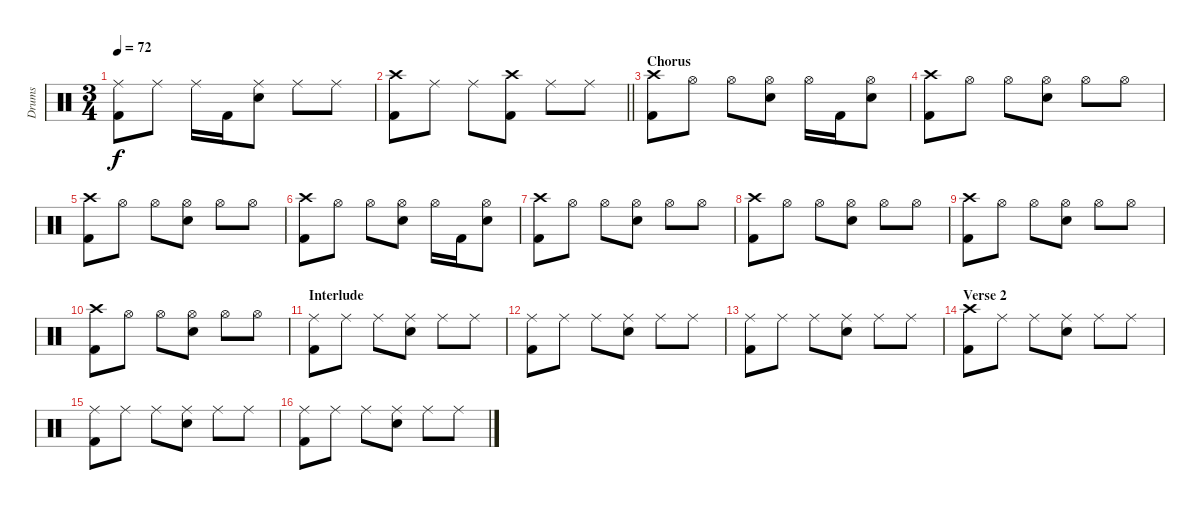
\track ("Drums" "Drums") {instrument percussion}
\staff {score}
\articulation defaults
\ts (3 4)
\tempo 72
\clef neutral
\ks c
("Ride (middle)" "Kick (hit) 2").8{dy f} "Ride (middle)".8 "Ride (middle)".16 "Kick (hit) 2".16 ("Ride (middle)" "Electric Snare (hit)").8 "Ride (middle)".8 "Ride (middle)".8 |
\barLineRight lightlight
("Crash high (hit)" "Kick (hit) 2").8 "Ride (middle)".8 "Ride (middle)".8 ("Crash high (hit)" "Kick (hit) 2").8 "Ride (middle)".8 "Ride (middle)".8 |
\section ("" "Chorus")
("Crash high (hit)" "Kick (hit) 2").8 "Hi-Hat (open)".8 "Hi-Hat (open)".8 ("Hi-Hat (open)" "Electric Snare (hit)").8 "Hi-Hat (open)".16 "Kick (hit) 2".16 ("Hi-Hat (open)" "Electric Snare (hit)").8 |
("Crash high (hit)" "Kick (hit) 2").8 "Hi-Hat (open)".8 "Hi-Hat (open)".8 ("Hi-Hat (open)" "Electric Snare (hit)").8 "Hi-Hat (open)".8 "Hi-Hat (open)".8 |
("Crash high (hit)" "Kick (hit) 2").8 "Hi-Hat (open)".8 "Hi-Hat (open)".8 ("Hi-Hat (open)" "Electric Snare (hit)").8 "Hi-Hat (open)".8 "Hi-Hat (open)".8 |
("Crash high (hit)" "Kick (hit) 2").8 "Hi-Hat (open)".8 "Hi-Hat (open)".8 ("Hi-Hat (open)" "Electric Snare (hit)").8 "Hi-Hat (open)".16 "Kick (hit) 2".16 ("Hi-Hat (open)" "Electric Snare (hit)").8 |
("Crash high (hit)" "Kick (hit) 2").8 "Hi-Hat (open)".8 "Hi-Hat (open)".8 ("Hi-Hat (open)" "Electric Snare (hit)").8 "Hi-Hat (open)".8 "Hi-Hat (open)".8 |
("Crash high (hit)" "Kick (hit) 2").8 "Hi-Hat (open)".8 "Hi-Hat (open)".8 ("Hi-Hat (open)" "Electric Snare (hit)").8 "Hi-Hat (open)".8 "Hi-Hat (open)".8 |
("Crash high (hit)" "Kick (hit) 2").8 "Hi-Hat (open)".8 "Hi-Hat (open)".8 ("Hi-Hat (open)" "Electric Snare (hit)").8 "Hi-Hat (open)".8 "Hi-Hat (open)".8 |
("Crash high (hit)" "Kick (hit) 2").8 "Hi-Hat (open)".8 "Hi-Hat (open)".8 ("Hi-Hat (open)" "Electric Snare (hit)").8 "Hi-Hat (open)".8 "Hi-Hat (open)".8 |
\section ("" "Interlude")
("Ride (middle)" "Kick (hit) 2").8 "Ride (middle)".8 "Ride (middle)".8 ("Ride (middle)" "Electric Snare (hit)").8 "Ride (middle)".8 "Ride (middle)".8 |
("Ride (middle)" "Kick (hit) 2").8 "Ride (middle)".8 "Ride (middle)".8 ("Ride (middle)" "Electric Snare (hit)").8 "Ride (middle)".8 "Ride (middle)".8 |
("Ride (middle)" "Kick (hit) 2").8 "Ride (middle)".8 "Ride (middle)".8 ("Ride (middle)" "Electric Snare (hit)").8 "Ride (middle)".8 "Ride (middle)".8 |
\section ("" "Verse 2")
("Crash high (hit)" "Kick (hit) 2").8 "Ride (middle)".8 "Ride (middle)".8 ("Ride (middle)" "Electric Snare (hit)").8 "Ride (middle)".8 "Ride (middle)".8 |
("Ride (middle)" "Kick (hit) 2").8 "Ride (middle)".8 "Ride (middle)".8 ("Ride (middle)" "Electric Snare (hit)").8 "Ride (middle)".8 "Ride (middle)".8 |
("Ride (middle)" "Kick (hit) 2").8 "Ride (middle)".8 "Ride (middle)".8 ("Ride (middle)" "Electric Snare (hit)").8 "Ride (middle)".8 "Ride (middle)".8
